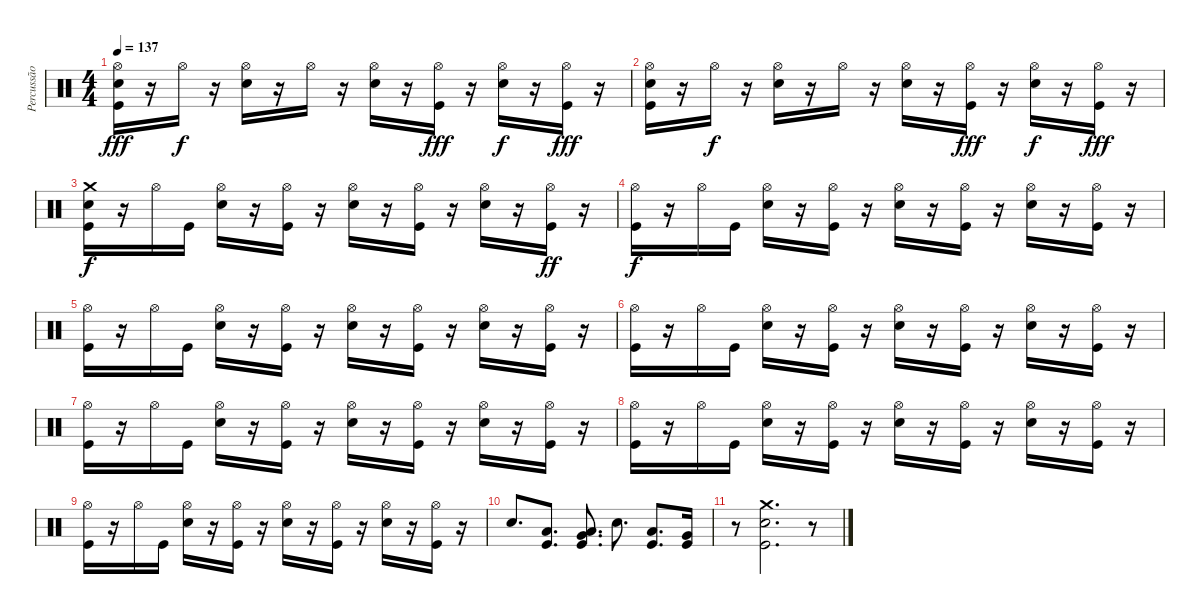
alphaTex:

\track ("Percussão" "Percussão") {instrument percussion}
\staff {score}
\articulation defaults
\ts (4 4)
\tempo 137
\clef neutral
\ks c
("Hi-Hat (open)" "Snare (hit) 2" "Kick (hit)").16{dy fff} r.16 "Hi-Hat (open)".16{dy f} r.16 ("Snare (hit) 2" "Hi-Hat (open)").16 r.16 "Hi-Hat (open)".16 r.16 ("Snare (hit) 2" "Hi-Hat (open)").16 r.16 ("Kick (hit)" "Hi-Hat (open)").16{dy fff} r.16 ("Hi-Hat (open)" "Snare (hit) 2").16{dy f} r.16 ("Hi-Hat (open)" "Kick (hit)").16{dy fff} r.16 |
("Hi-Hat (open)" "Snare (hit) 2" "Kick (hit)").16 r.16 "Hi-Hat (open)".16{dy f} r.16 ("Snare (hit) 2" "Hi-Hat (open)").16 r.16 "Hi-Hat (open)".16 r.16 ("Snare (hit) 2" "Hi-Hat (open)").16 r.16 ("Kick (hit)" "Hi-Hat (open)").16{dy fff} r.16 ("Hi-Hat (open)" "Snare (hit) 2").16{dy f} r.16 ("Hi-Hat (open)" "Kick (hit)").16{dy fff} r.16 |
("Crash medium (hit)" "Snare (hit) 2" "Kick (hit)").16{dy f volume 13} r.16 "Hi-Hat (open)".16 "Kick (hit)".16 ("Snare (hit) 2" "Hi-Hat (open)").16 r.16 ("Hi-Hat (open)" "Kick (hit)").16 r.16 ("Snare (hit) 2" "Hi-Hat (open)").16 r.16 ("Kick (hit)" "Hi-Hat (open)").16 r.16 ("Hi-Hat (open)" "Snare (hit) 2").16 r.16 ("Hi-Hat (open)" "Kick (hit)").16{dy ff} r.16 |
("Hi-Hat (open)" "Kick (hit)").16{dy f} r.16 "Hi-Hat (open)".16 "Kick (hit)".16 ("Snare (hit) 2" "Hi-Hat (open)").16 r.16 ("Hi-Hat (open)" "Kick (hit)").16 r.16 ("Snare (hit) 2" "Hi-Hat (open)").16 r.16 ("Kick (hit)" "Hi-Hat (open)").16 r.16 ("Hi-Hat (open)" "Snare (hit) 2").16 r.16 ("Hi-Hat (open)" "Kick (hit)").16 r.16 |
("Hi-Hat (open)" "Kick (hit)").16 r.16 "Hi-Hat (open)".16 "Kick (hit)".16 ("Snare (hit) 2" "Hi-Hat (open)").16 r.16 ("Hi-Hat (open)" "Kick (hit)").16 r.16 ("Snare (hit) 2" "Hi-Hat (open)").16 r.16 ("Kick (hit)" "Hi-Hat (open)").16 r.16 ("Hi-Hat (open)" "Snare (hit) 2").16 r.16 ("Hi-Hat (open)" "Kick (hit)").16 r.16 |
("Hi-Hat (open)" "Kick (hit)").16 r.16 "Hi-Hat (open)".16 "Kick (hit)".16 ("Snare (hit) 2" "Hi-Hat (open)").16 r.16 ("Hi-Hat (open)" "Kick (hit)").16 r.16 ("Snare (hit) 2" "Hi-Hat (open)").16 r.16 ("Kick (hit)" "Hi-Hat (open)").16 r.16 ("Hi-Hat (open)" "Snare (hit) 2").16 r.16 ("Hi-Hat (open)" "Kick (hit)").16 r.16 |
("Hi-Hat (open)" "Kick (hit)").16 r.16 "Hi-Hat (open)".16 "Kick (hit)".16 ("Snare (hit) 2" "Hi-Hat (open)").16 r.16 ("Hi-Hat (open)" "Kick (hit)").16 r.16 ("Snare (hit) 2" "Hi-Hat (open)").16 r.16 ("Kick (hit)" "Hi-Hat (open)").16 r.16 ("Hi-Hat (open)" "Snare (hit) 2").16 r.16 ("Hi-Hat (open)" "Kick (hit)").16 r.16 |
("Hi-Hat (open)" "Kick (hit)").16 r.16 "Hi-Hat (open)".16 "Kick (hit)".16 ("Snare (hit) 2" "Hi-Hat (open)").16 r.16 ("Hi-Hat (open)" "Kick (hit)").16 r.16 ("Snare (hit) 2" "Hi-Hat (open)").16 r.16 ("Kick (hit)" "Hi-Hat (open)").16 r.16 ("Hi-Hat (open)" "Snare (hit) 2").16 r.16 ("Hi-Hat (open)" "Kick (hit)").16 r.16 |
("Hi-Hat (open)" "Kick (hit)").16 r.16 "Hi-Hat (open)".16 "Kick (hit)".16 ("Snare (hit) 2" "Hi-Hat (open)").16 r.16 ("Hi-Hat (open)" "Kick (hit)").16 r.16 ("Snare (hit) 2" "Hi-Hat (open)").16 r.16 ("Kick (hit)" "Hi-Hat (open)").16 r.16 ("Hi-Hat (open)" "Snare (hit) 2").16 r.16 ("Hi-Hat (open)" "Kick (hit)").16 r.16 |
"Snare (hit) 2".8{d} ("Kick (hit)" "Low Tom (hit)").8{d} ("Kick (hit)" "Low Tom (hit)" "Very Low Tom (hit)").8{d} "Snare (hit) 2".8{d} ("Kick (hit)" "Low Tom (hit)").8{d} ("Kick (hit)" "Very Low Tom (hit)").16 |
r.8 ("Kick (hit)" "Snare (hit) 2" "Crash medium (hit)").2{d} r.8
